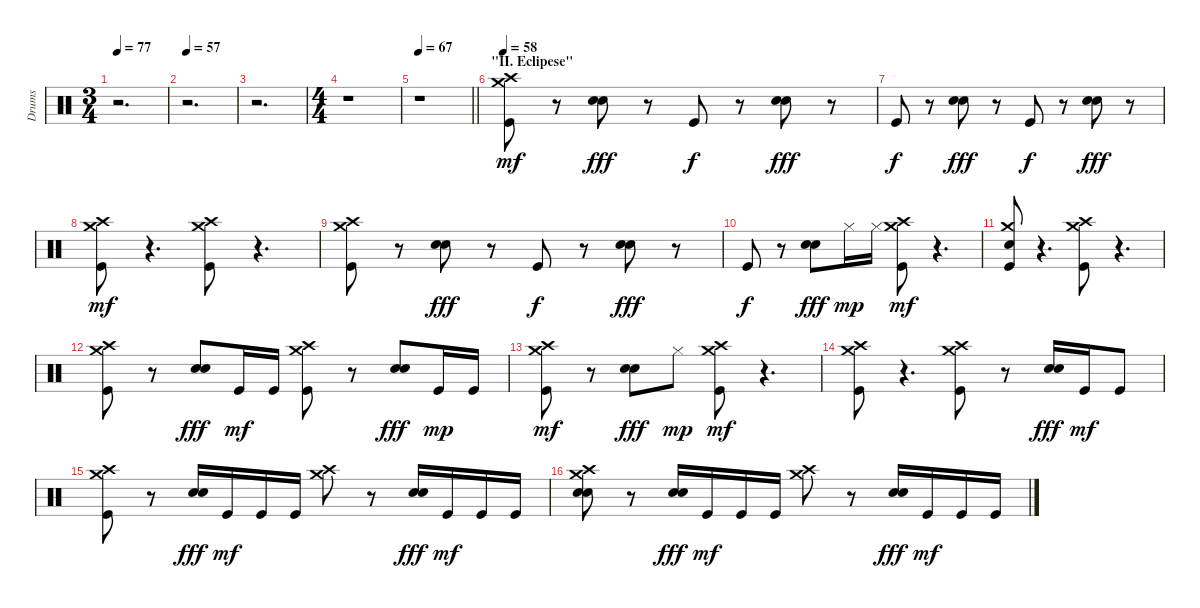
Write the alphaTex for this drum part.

\track ("Drums" "Drums") {instrument percussion}
\staff {score}
\articulation defaults
\ts (3 4)
\tempo 77
\clef neutral
\ks c
r.2{d dy f} |
\tempo 57
r.2{d} |
r.2{d} |
\ts (4 4)
r.1 |
\tempo 67
\barLineRight lightlight
r.1 |
\section ("" "\"II. Eclipese\"")
\tempo 58
("Kick (hit)" "Crash high (hit)" "Crash medium (hit)").8{dy mf} r.8 ("Snare (hit) 2" "Electric Snare (hit)").8{dy fff} r.8 "Kick (hit)".8{dy f} r.8 ("Snare (hit) 2" "Electric Snare (hit)").8{dy fff} r.8 |
"Kick (hit)".8{dy f} r.8 ("Snare (hit) 2" "Electric Snare (hit)").8{dy fff} r.8 "Kick (hit)".8{dy f} r.8 ("Snare (hit) 2" "Electric Snare (hit)").8{dy fff} r.8 |
("Kick (hit)" "Crash high (hit)" "Crash medium (hit)").8{dy mf} r.4{d} ("Kick (hit)" "Crash high (hit)" "Crash medium (hit)").8 r.4{d} |
("Kick (hit)" "Crash high (hit)" "Crash medium (hit)").8 r.8 ("Snare (hit) 2" "Electric Snare (hit)").8{dy fff} r.8 "Kick (hit)".8{dy f} r.8 ("Snare (hit) 2" "Electric Snare (hit)").8{dy fff} r.8 |
"Kick (hit)".8{dy f} r.8 ("Snare (hit) 2" "Electric Snare (hit)").8{dy fff} "Hi-Hat (closed)".16{dy mp} "Hi-Hat (closed)".16 ("Kick (hit)" "Crash high (hit)" "Crash medium (hit)").8{dy mf} r.4{d} |
("Kick (hit)" "Electric Snare (hit)" "Crash medium (hit)").8 r.4{d} ("Kick (hit)" "Crash high (hit)" "Crash medium (hit)").8 r.4{d} |
("Kick (hit)" "Crash high (hit)" "Crash medium (hit)").8 r.8 ("Snare (hit) 2" "Electric Snare (hit)").8{dy fff} "Kick (hit)".16{dy mf} "Kick (hit)".16 ("Kick (hit)" "Crash high (hit)" "Crash medium (hit)").8 r.8 ("Snare (hit) 2" "Electric Snare (hit)").8{dy fff} "Kick (hit)".16{dy mp} "Kick (hit)".16 |
("Kick (hit)" "Crash high (hit)" "Crash medium (hit)").8{dy mf} r.8 ("Snare (hit) 2" "Electric Snare (hit)").8{dy fff} "Hi-Hat (closed)".8{dy mp} ("Kick (hit)" "Crash high (hit)" "Crash medium (hit)").8{dy mf} r.4{d} |
("Kick (hit)" "Crash high (hit)" "Crash medium (hit)").8 r.4{d} ("Kick (hit)" "Crash high (hit)" "Crash medium (hit)").8 r.8 ("Snare (hit) 2" "Electric Snare (hit)").16{dy fff} "Kick (hit)".16{dy mf} "Kick (hit)".8 |
("Kick (hit)" "Crash high (hit)" "Crash medium (hit)").8 r.8 ("Snare (hit) 2" "Electric Snare (hit)").16{dy fff} "Kick (hit)".16{dy mf} "Kick (hit)".16 "Kick (hit)".16 ("Crash high (hit)" "Crash medium (hit)").8 r.8 ("Snare (hit) 2" "Electric Snare (hit)").16{dy fff} "Kick (hit)".16{dy mf} "Kick (hit)".16 "Kick (hit)".16 |
("Snare (hit) 2" "Electric Snare (hit)" "Crash high (hit)" "Crash medium (hit)").8 r.8 ("Snare (hit) 2" "Electric Snare (hit)").16{dy fff} "Kick (hit)".16{dy mf} "Kick (hit)".16 "Kick (hit)".16 ("Crash high (hit)" "Crash medium (hit)").8 r.8 ("Snare (hit) 2" "Electric Snare (hit)").16{dy fff} "Kick (hit)".16{dy mf} "Kick (hit)".16 "Kick (hit)".16
